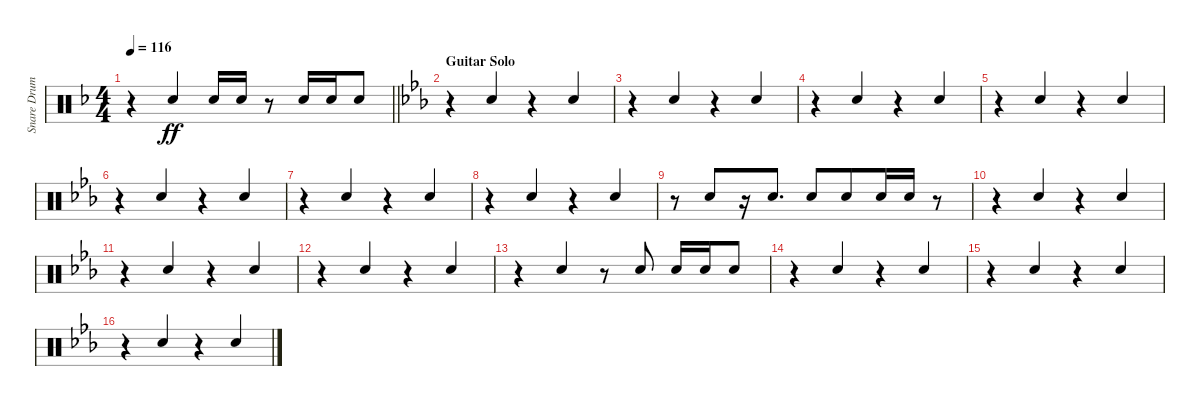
\track ("Snare Drum" "Snare Drum") {instrument percussion}
\staff {score}
\articulation defaults
\ts (4 4)
\tempo 116
\clef neutral
\barLineRight lightlight
\ks f
r.4{dy ff beam merge} "Electric Snare (hit)".4{beam Up} "Electric Snare (hit)".16{beam Up} "Electric Snare (hit)".16{beam Up} r.8 "Electric Snare (hit)".16{beam Up} "Electric Snare (hit)".16{beam Up} "Electric Snare (hit)".8{beam Up} |
\section ("" "Guitar Solo")
\ks eb
r.4{beam merge} "Electric Snare (hit)".4{beam Up} r.4{beam merge} "Electric Snare (hit)".4{beam Up} |
r.4{beam merge} "Electric Snare (hit)".4{beam Up} r.4{beam merge} "Electric Snare (hit)".4{beam Up} |
r.4{beam merge} "Electric Snare (hit)".4{beam Up} r.4{beam merge} "Electric Snare (hit)".4{beam Up} |
r.4{beam merge} "Electric Snare (hit)".4{beam Up} r.4{beam merge} "Electric Snare (hit)".4{beam Up} |
r.4{beam merge} "Electric Snare (hit)".4{beam Up} r.4{beam merge} "Electric Snare (hit)".4{beam Up} |
r.4{beam merge} "Electric Snare (hit)".4{beam Up} r.4{beam merge} "Electric Snare (hit)".4{beam Up} |
r.4{beam merge} "Electric Snare (hit)".4{beam Up} r.4{beam merge} "Electric Snare (hit)".4{beam Up} |
r.8 "Electric Snare (hit)".8{beam Up beam merge} r.16 "Electric Snare (hit)".8{d beam Up} "Electric Snare (hit)".8{beam Up} "Electric Snare (hit)".8{beam Up beam merge} "Electric Snare (hit)".16{beam Up} "Electric Snare (hit)".16{beam Up} r.8 |
r.4{beam merge} "Electric Snare (hit)".4{beam Up} r.4{beam merge} "Electric Snare (hit)".4{beam Up} |
r.4{beam merge} "Electric Snare (hit)".4{beam Up} r.4{beam merge} "Electric Snare (hit)".4{beam Up} |
r.4{beam merge} "Electric Snare (hit)".4{beam Up} r.4{beam merge} "Electric Snare (hit)".4{beam Up} |
r.4{beam merge} "Electric Snare (hit)".4{beam Up} r.8{beam Up beam merge} "Electric Snare (hit)".8{beam Up} "Electric Snare (hit)".16{beam Up} "Electric Snare (hit)".16{beam Up} "Electric Snare (hit)".8{beam Up} |
r.4{beam merge} "Electric Snare (hit)".4{beam Up} r.4{beam merge} "Electric Snare (hit)".4{beam Up} |
r.4{beam merge} "Electric Snare (hit)".4{beam Up} r.4{beam merge} "Electric Snare (hit)".4{beam Up} |
r.4{beam merge} "Electric Snare (hit)".4{beam Up} r.4{beam merge} "Electric Snare (hit)".4{beam Up}
